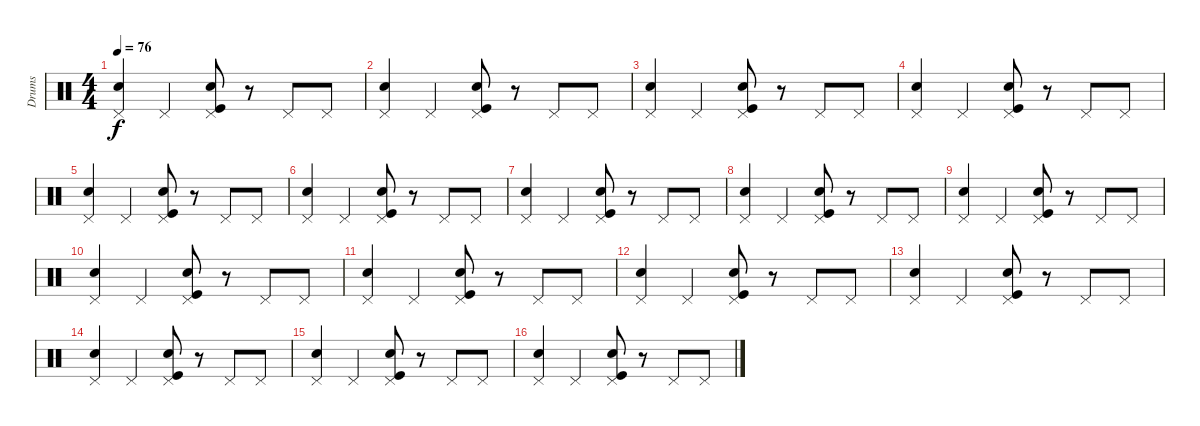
\track ("Drums" "Drums") {instrument percussion}
\staff {score}
\articulation defaults
\ts (4 4)
\tempo 76
\clef neutral
\ks c
("Pedal Hi-Hat (hit)" "Snare (hit) 2").4{dy f} "Pedal Hi-Hat (hit)".4 ("Pedal Hi-Hat (hit)" "Snare (hit) 2" "Kick (hit)").8 r.8 "Pedal Hi-Hat (hit)".8 "Pedal Hi-Hat (hit)".8 |
("Pedal Hi-Hat (hit)" "Snare (hit) 2").4 "Pedal Hi-Hat (hit)".4 ("Pedal Hi-Hat (hit)" "Snare (hit) 2" "Kick (hit)").8 r.8 "Pedal Hi-Hat (hit)".8 "Pedal Hi-Hat (hit)".8 |
("Pedal Hi-Hat (hit)" "Snare (hit) 2").4 "Pedal Hi-Hat (hit)".4 ("Pedal Hi-Hat (hit)" "Snare (hit) 2" "Kick (hit)").8 r.8 "Pedal Hi-Hat (hit)".8 "Pedal Hi-Hat (hit)".8 |
("Pedal Hi-Hat (hit)" "Snare (hit) 2").4 "Pedal Hi-Hat (hit)".4 ("Pedal Hi-Hat (hit)" "Snare (hit) 2" "Kick (hit)").8 r.8 "Pedal Hi-Hat (hit)".8 "Pedal Hi-Hat (hit)".8 |
("Pedal Hi-Hat (hit)" "Snare (hit) 2").4 "Pedal Hi-Hat (hit)".4 ("Pedal Hi-Hat (hit)" "Snare (hit) 2" "Kick (hit)").8 r.8 "Pedal Hi-Hat (hit)".8 "Pedal Hi-Hat (hit)".8 |
("Pedal Hi-Hat (hit)" "Snare (hit) 2").4 "Pedal Hi-Hat (hit)".4 ("Pedal Hi-Hat (hit)" "Snare (hit) 2" "Kick (hit)").8 r.8 "Pedal Hi-Hat (hit)".8 "Pedal Hi-Hat (hit)".8 |
("Pedal Hi-Hat (hit)" "Snare (hit) 2").4 "Pedal Hi-Hat (hit)".4 ("Pedal Hi-Hat (hit)" "Snare (hit) 2" "Kick (hit)").8 r.8 "Pedal Hi-Hat (hit)".8 "Pedal Hi-Hat (hit)".8 |
("Pedal Hi-Hat (hit)" "Snare (hit) 2").4 "Pedal Hi-Hat (hit)".4 ("Pedal Hi-Hat (hit)" "Snare (hit) 2" "Kick (hit)").8 r.8 "Pedal Hi-Hat (hit)".8 "Pedal Hi-Hat (hit)".8 |
("Pedal Hi-Hat (hit)" "Snare (hit) 2").4 "Pedal Hi-Hat (hit)".4 ("Pedal Hi-Hat (hit)" "Snare (hit) 2" "Kick (hit)").8 r.8 "Pedal Hi-Hat (hit)".8 "Pedal Hi-Hat (hit)".8 |
("Pedal Hi-Hat (hit)" "Snare (hit) 2").4 "Pedal Hi-Hat (hit)".4 ("Pedal Hi-Hat (hit)" "Snare (hit) 2" "Kick (hit)").8 r.8 "Pedal Hi-Hat (hit)".8 "Pedal Hi-Hat (hit)".8 |
("Pedal Hi-Hat (hit)" "Snare (hit) 2").4 "Pedal Hi-Hat (hit)".4 ("Pedal Hi-Hat (hit)" "Snare (hit) 2" "Kick (hit)").8 r.8 "Pedal Hi-Hat (hit)".8 "Pedal Hi-Hat (hit)".8 |
("Pedal Hi-Hat (hit)" "Snare (hit) 2").4 "Pedal Hi-Hat (hit)".4 ("Pedal Hi-Hat (hit)" "Snare (hit) 2" "Kick (hit)").8 r.8 "Pedal Hi-Hat (hit)".8 "Pedal Hi-Hat (hit)".8 |
("Pedal Hi-Hat (hit)" "Snare (hit) 2").4 "Pedal Hi-Hat (hit)".4 ("Pedal Hi-Hat (hit)" "Snare (hit) 2" "Kick (hit)").8 r.8 "Pedal Hi-Hat (hit)".8 "Pedal Hi-Hat (hit)".8 |
("Pedal Hi-Hat (hit)" "Snare (hit) 2").4 "Pedal Hi-Hat (hit)".4 ("Pedal Hi-Hat (hit)" "Snare (hit) 2" "Kick (hit)").8 r.8 "Pedal Hi-Hat (hit)".8 "Pedal Hi-Hat (hit)".8 |
("Pedal Hi-Hat (hit)" "Snare (hit) 2").4 "Pedal Hi-Hat (hit)".4 ("Pedal Hi-Hat (hit)" "Snare (hit) 2" "Kick (hit)").8 r.8 "Pedal Hi-Hat (hit)".8 "Pedal Hi-Hat (hit)".8 |
("Pedal Hi-Hat (hit)" "Snare (hit) 2").4 "Pedal Hi-Hat (hit)".4 ("Pedal Hi-Hat (hit)" "Snare (hit) 2" "Kick (hit)").8 r.8 "Pedal Hi-Hat (hit)".8 "Pedal Hi-Hat (hit)".8
